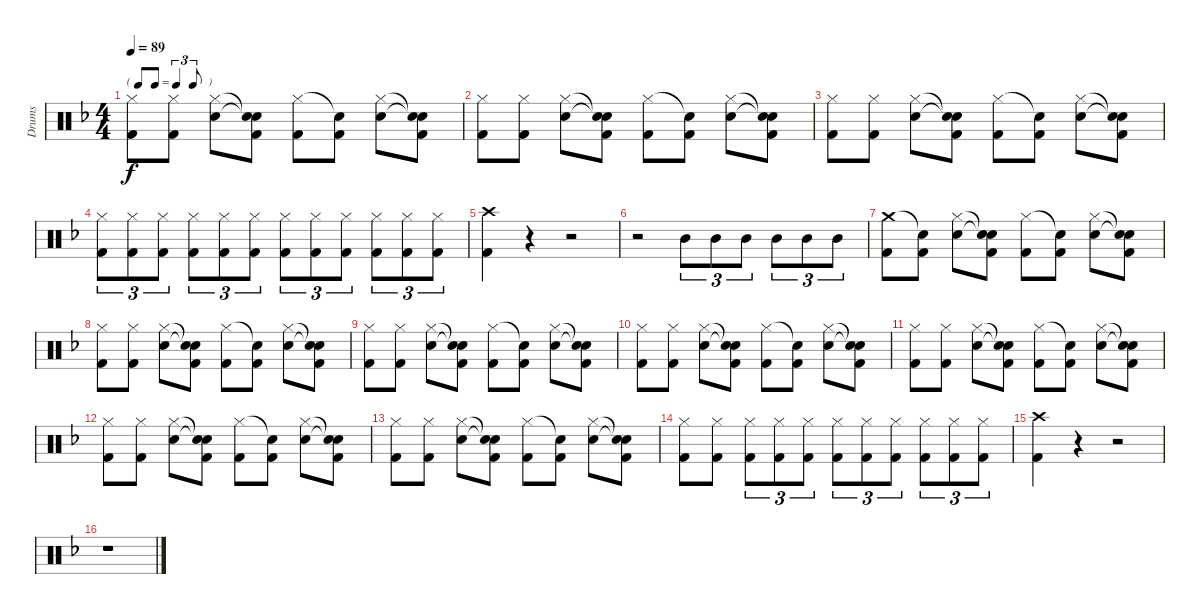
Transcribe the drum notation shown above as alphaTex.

\track ("Drums" "Drums") {instrument percussion}
\staff {score}
\articulation defaults
\ts (4 4)
\tf triplet8th
\tempo 89
\clef neutral
\ks f
("Hi-Hat (closed)" "Kick (hit) 2").8{dy f} ("Hi-Hat (closed)" "Kick (hit) 2").8 ("Hi-Hat (closed)" "Snare (hit) 2").8 ("Snare (hit)"{t} "Snare (hit)"{t} "Kick (hit) 2").8 ("Hi-Hat (closed)" "Kick (hit) 2").8 ("Snare (hit)"{t} "Kick (hit) 2").8 ("Hi-Hat (closed)" "Snare (hit) 2").8 ("Snare (hit)"{t} "Snare (hit)"{t} "Kick (hit) 2").8 |
("Hi-Hat (closed)" "Kick (hit) 2").8 ("Hi-Hat (closed)" "Kick (hit) 2").8 ("Hi-Hat (closed)" "Snare (hit) 2").8 ("Snare (hit)"{t} "Snare (hit)"{t} "Kick (hit) 2").8 ("Hi-Hat (closed)" "Kick (hit) 2").8 ("Snare (hit)"{t} "Kick (hit) 2").8 ("Hi-Hat (closed)" "Snare (hit) 2").8 ("Snare (hit)"{t} "Snare (hit)"{t} "Kick (hit) 2").8 |
("Hi-Hat (closed)" "Kick (hit) 2").8 ("Hi-Hat (closed)" "Kick (hit) 2").8 ("Hi-Hat (closed)" "Snare (hit) 2").8 ("Snare (hit)"{t} "Snare (hit)"{t} "Kick (hit) 2").8 ("Hi-Hat (closed)" "Kick (hit) 2").8 ("Snare (hit)"{t} "Kick (hit) 2").8 ("Hi-Hat (closed)" "Snare (hit) 2").8 ("Snare (hit)"{t} "Snare (hit)"{t} "Kick (hit) 2").8 |
("Hi-Hat (closed)" "Kick (hit) 2").8{tu (3 2)} ("Hi-Hat (closed)" "Kick (hit) 2").8{tu (3 2)} ("Hi-Hat (closed)" "Kick (hit) 2").8{tu (3 2)} ("Hi-Hat (closed)" "Kick (hit) 2").8{tu (3 2)} ("Hi-Hat (closed)" "Kick (hit) 2").8{tu (3 2)} ("Hi-Hat (closed)" "Kick (hit) 2").8{tu (3 2)} ("Hi-Hat (closed)" "Kick (hit) 2").8{tu (3 2)} ("Hi-Hat (closed)" "Kick (hit) 2").8{tu (3 2)} ("Hi-Hat (closed)" "Kick (hit) 2").8{tu (3 2)} ("Hi-Hat (closed)" "Kick (hit) 2").8{tu (3 2)} ("Hi-Hat (closed)" "Kick (hit) 2").8{tu (3 2)} ("Hi-Hat (closed)" "Kick (hit) 2").8{tu (3 2)} |
("Crash high (hit)" "Kick (hit) 2").4 r.4 r.2 |
r.2 "Mid Tom (hit)".8{tu (3 2)} "Mid Tom (hit)".8{tu (3 2)} "Mid Tom (hit)".8{tu (3 2)} "Mid Tom (hit)".8{tu (3 2)} "Mid Tom (hit)".8{tu (3 2)} "Mid Tom (hit)".8{tu (3 2)} |
("Crash medium (hit)" "Kick (hit) 2").8 ("Snare (hit)"{t} "Kick (hit) 2").8 ("Hi-Hat (closed)" "Snare (hit) 2").8 ("Snare (hit)"{t} "Snare (hit)"{t} "Kick (hit) 2").8 ("Hi-Hat (closed)" "Kick (hit) 2").8 ("Snare (hit)"{t} "Kick (hit) 2").8 ("Hi-Hat (closed)" "Snare (hit) 2").8 ("Snare (hit)"{t} "Snare (hit)"{t} "Kick (hit) 2").8 |
("Hi-Hat (closed)" "Kick (hit) 2").8 ("Hi-Hat (closed)" "Kick (hit) 2").8 ("Hi-Hat (closed)" "Snare (hit) 2").8 ("Snare (hit)"{t} "Snare (hit)"{t} "Kick (hit) 2").8 ("Hi-Hat (closed)" "Kick (hit) 2").8 ("Snare (hit)"{t} "Kick (hit) 2").8 ("Hi-Hat (closed)" "Snare (hit) 2").8 ("Snare (hit)"{t} "Snare (hit)"{t} "Kick (hit) 2").8 |
("Hi-Hat (closed)" "Kick (hit) 2").8 ("Hi-Hat (closed)" "Kick (hit) 2").8 ("Hi-Hat (closed)" "Snare (hit) 2").8 ("Snare (hit)"{t} "Snare (hit)"{t} "Kick (hit) 2").8 ("Hi-Hat (closed)" "Kick (hit) 2").8 ("Snare (hit)"{t} "Kick (hit) 2").8 ("Hi-Hat (closed)" "Snare (hit) 2").8 ("Snare (hit)"{t} "Snare (hit)"{t} "Kick (hit) 2").8 |
("Hi-Hat (closed)" "Kick (hit) 2").8 ("Hi-Hat (closed)" "Kick (hit) 2").8 ("Hi-Hat (closed)" "Snare (hit) 2").8 ("Snare (hit)"{t} "Snare (hit)"{t} "Kick (hit) 2").8 ("Hi-Hat (closed)" "Kick (hit) 2").8 ("Snare (hit)"{t} "Kick (hit) 2").8 ("Hi-Hat (closed)" "Snare (hit) 2").8 ("Snare (hit)"{t} "Snare (hit)"{t} "Kick (hit) 2").8 |
("Hi-Hat (closed)" "Kick (hit) 2").8 ("Hi-Hat (closed)" "Kick (hit) 2").8 ("Hi-Hat (closed)" "Snare (hit) 2").8 ("Snare (hit)"{t} "Snare (hit)"{t} "Kick (hit) 2").8 ("Hi-Hat (closed)" "Kick (hit) 2").8 ("Snare (hit)"{t} "Kick (hit) 2").8 ("Hi-Hat (closed)" "Snare (hit) 2").8 ("Snare (hit)"{t} "Snare (hit)"{t} "Kick (hit) 2").8 |
("Hi-Hat (closed)" "Kick (hit) 2").8 ("Hi-Hat (closed)" "Kick (hit) 2").8 ("Hi-Hat (closed)" "Snare (hit) 2").8 ("Snare (hit)"{t} "Snare (hit)"{t} "Kick (hit) 2").8 ("Hi-Hat (closed)" "Kick (hit) 2").8 ("Snare (hit)"{t} "Kick (hit) 2").8 ("Hi-Hat (closed)" "Snare (hit) 2").8 ("Snare (hit)"{t} "Snare (hit)"{t} "Kick (hit) 2").8 |
("Hi-Hat (closed)" "Kick (hit) 2").8 ("Hi-Hat (closed)" "Kick (hit) 2").8 ("Hi-Hat (closed)" "Snare (hit) 2").8 ("Snare (hit)"{t} "Snare (hit)"{t} "Kick (hit) 2").8 ("Hi-Hat (closed)" "Kick (hit) 2").8 ("Snare (hit)"{t} "Kick (hit) 2").8 ("Hi-Hat (closed)" "Snare (hit) 2").8 ("Snare (hit)"{t} "Snare (hit)"{t} "Kick (hit) 2").8 |
("Hi-Hat (closed)" "Kick (hit) 2").8 ("Hi-Hat (closed)" "Kick (hit) 2").8 ("Hi-Hat (closed)" "Kick (hit) 2").8{tu (3 2)} ("Hi-Hat (closed)" "Kick (hit) 2").8{tu (3 2)} ("Hi-Hat (closed)" "Kick (hit) 2").8{tu (3 2)} ("Hi-Hat (closed)" "Kick (hit) 2").8{tu (3 2)} ("Hi-Hat (closed)" "Kick (hit) 2").8{tu (3 2)} ("Hi-Hat (closed)" "Kick (hit) 2").8{tu (3 2)} ("Hi-Hat (closed)" "Kick (hit) 2").8{tu (3 2)} ("Hi-Hat (closed)" "Kick (hit) 2").8{tu (3 2)} ("Hi-Hat (closed)" "Kick (hit) 2").8{tu (3 2)} |
("Crash high (hit)" "Kick (hit) 2").4 r.4 r.2 |
r.1
